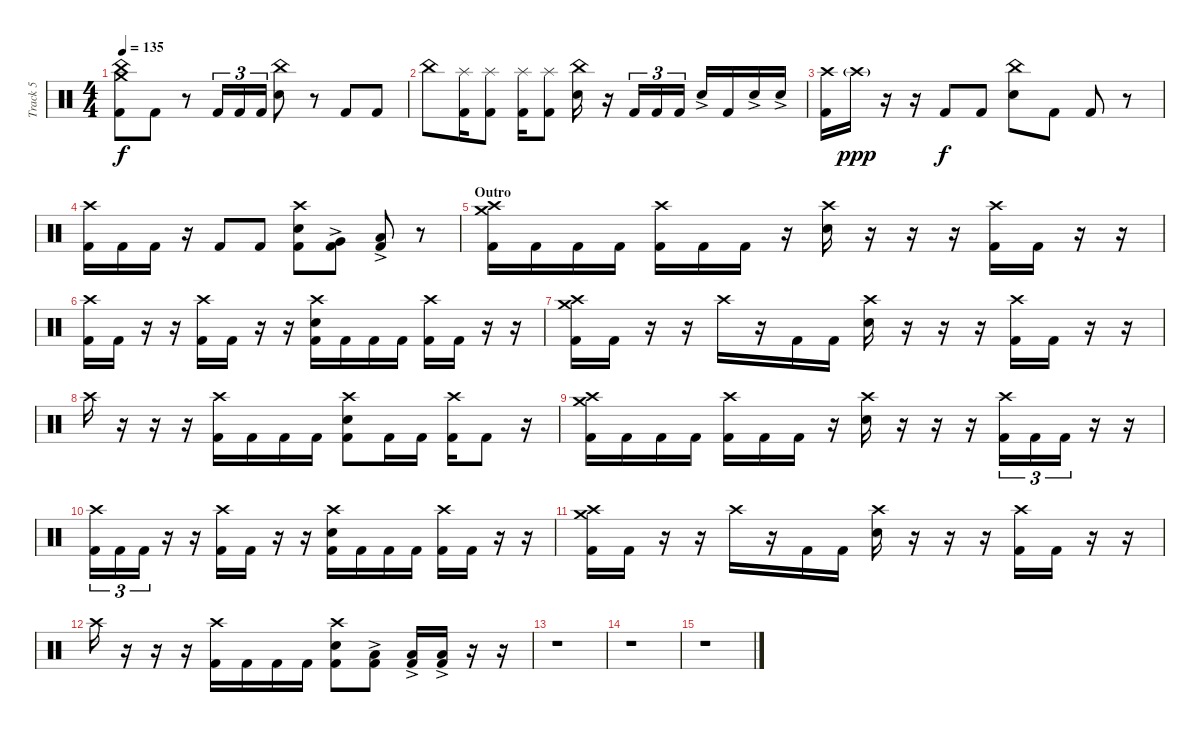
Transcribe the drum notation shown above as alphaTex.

\track ("Track 5" "Track 5") {instrument percussion}
\staff {score}
\articulation defaults
\ts (4 4)
\tempo 135
\clef neutral
\ks c
("Crash medium (hit)" "China (hit)" "Kick (hit) 2").8{dy f} "Kick (hit) 2".8 r.8 "Kick (hit) 2".16{tu (3 2)} "Kick (hit) 2".16{tu (3 2)} "Kick (hit) 2".16{tu (3 2)} ("Electric Snare (hit)" "China (hit)").8 r.8 "Kick (hit) 2".8 "Kick (hit) 2".8 |
"China (hit)".8 ("Splash (hit)" "Kick (hit) 2").16 ("Splash (hit)" "Kick (hit) 2").8 ("Splash (hit)" "Kick (hit) 2").16 ("Splash (hit)" "Kick (hit) 2").8 ("Electric Snare (hit)" "China (hit)").16 r.16 "Kick (hit) 2".16{tu (3 2)} "Kick (hit) 2".16{tu (3 2)} "Kick (hit) 2".16{tu (3 2)} "Electric Snare (hit)"{ac}.16 "Kick (hit) 2".16 "Electric Snare (hit)"{ac}.16 "Electric Snare (hit)"{ac}.16 |
("Crash high (hit)" "Kick (hit) 2").16 "Crash high (hit)"{g}.16{dy ppp} r.16 r.16 "Kick (hit) 2".8{dy f} "Kick (hit) 2".8 ("Electric Snare (hit)" "China (hit)").8 "Kick (hit) 2".8 "Kick (hit) 2".8 r.8 |
("Crash high (hit)" "Kick (hit) 2").16 "Kick (hit) 2".16 "Kick (hit) 2".16 r.16 "Kick (hit) 2".8 "Kick (hit) 2".8 ("Electric Snare (hit)" "Crash high (hit)" "Kick (hit) 2").8 ("Very Low Tom (hit)"{ac} "Kick (hit) 2").8 ("Low Floor Tom (hit)"{ac} "Kick (hit) 2").8 r.8 |
\section ("" "Outro")
("Crash medium (hit)" "Crash high (hit)" "Kick (hit) 2").16 "Kick (hit) 2".16 "Kick (hit) 2".16 "Kick (hit) 2".16 ("Crash high (hit)" "Kick (hit) 2").16 "Kick (hit) 2".16 "Kick (hit) 2".16 r.16 ("Electric Snare (hit)" "Crash high (hit)").16 r.16 r.16 r.16 ("Crash high (hit)" "Kick (hit) 2").16 "Kick (hit) 2".16 r.16 r.16 |
("Crash high (hit)" "Kick (hit) 2").16 "Kick (hit) 2".16 r.16 r.16 ("Crash high (hit)" "Kick (hit) 2").16 "Kick (hit) 2".16 r.16 r.16 ("Electric Snare (hit)" "Crash high (hit)" "Kick (hit) 2").16 "Kick (hit) 2".16 "Kick (hit) 2".16 "Kick (hit) 2".16 ("Crash high (hit)" "Kick (hit) 2").16 "Kick (hit) 2".16 r.16 r.16 |
("Crash medium (hit)" "Crash high (hit)" "Kick (hit) 2").16 "Kick (hit) 2".16 r.16 r.16 "Crash high (hit)".16 r.16 "Kick (hit) 2".16 "Kick (hit) 2".16 ("Electric Snare (hit)" "Crash high (hit)").16 r.16 r.16 r.16 ("Crash high (hit)" "Kick (hit) 2").16 "Kick (hit) 2".16 r.16 r.16 |
"Crash high (hit)".16 r.16 r.16 r.16 ("Crash high (hit)" "Kick (hit) 2").16 "Kick (hit) 2".16 "Kick (hit) 2".16 "Kick (hit) 2".16 ("Electric Snare (hit)" "Crash high (hit)" "Kick (hit) 2").8 "Kick (hit) 2".16 "Kick (hit) 2".16 ("Crash high (hit)" "Kick (hit) 2").16 "Kick (hit) 2".8 r.16 |
("Crash medium (hit)" "Crash high (hit)" "Kick (hit) 2").16 "Kick (hit) 2".16 "Kick (hit) 2".16 "Kick (hit) 2".16 ("Crash high (hit)" "Kick (hit) 2").16 "Kick (hit) 2".16 "Kick (hit) 2".16 r.16 ("Electric Snare (hit)" "Crash high (hit)").16 r.16 r.16 r.16 ("Crash high (hit)" "Kick (hit) 2").16{tu (3 2)} "Kick (hit) 2".16{tu (3 2)} "Kick (hit) 2".16{tu (3 2)} r.16 r.16 |
("Crash high (hit)" "Kick (hit) 2").16{tu (3 2)} "Kick (hit) 2".16{tu (3 2)} "Kick (hit) 2".16{tu (3 2)} r.16 r.16 ("Crash high (hit)" "Kick (hit) 2").16 "Kick (hit) 2".16 r.16 r.16 ("Electric Snare (hit)" "Crash high (hit)" "Kick (hit) 2").16 "Kick (hit) 2".16 "Kick (hit) 2".16 "Kick (hit) 2".16 ("Crash high (hit)" "Kick (hit) 2").16 "Kick (hit) 2".16 r.16 r.16 |
("Crash medium (hit)" "Crash high (hit)" "Kick (hit) 2").16 "Kick (hit) 2".16 r.16 r.16 "Crash high (hit)".16 r.16 "Kick (hit) 2".16 "Kick (hit) 2".16 ("Electric Snare (hit)" "Crash high (hit)").16 r.16 r.16 r.16 ("Crash high (hit)" "Kick (hit) 2").16 "Kick (hit) 2".16 r.16 r.16 |
"Crash high (hit)".16 r.16 r.16 r.16 ("Crash high (hit)" "Kick (hit) 2").16 "Kick (hit) 2".16 "Kick (hit) 2".16 "Kick (hit) 2".16 ("Electric Snare (hit)" "Crash high (hit)" "Kick (hit) 2").8 ("Low Floor Tom (hit)"{ac} "Kick (hit) 2").8 ("Low Floor Tom (hit)"{ac} "Kick (hit) 2").16 ("Low Floor Tom (hit)"{ac} "Kick (hit) 2").16 r.16 r.16 |
r.1 |
r.1 |
r.1
